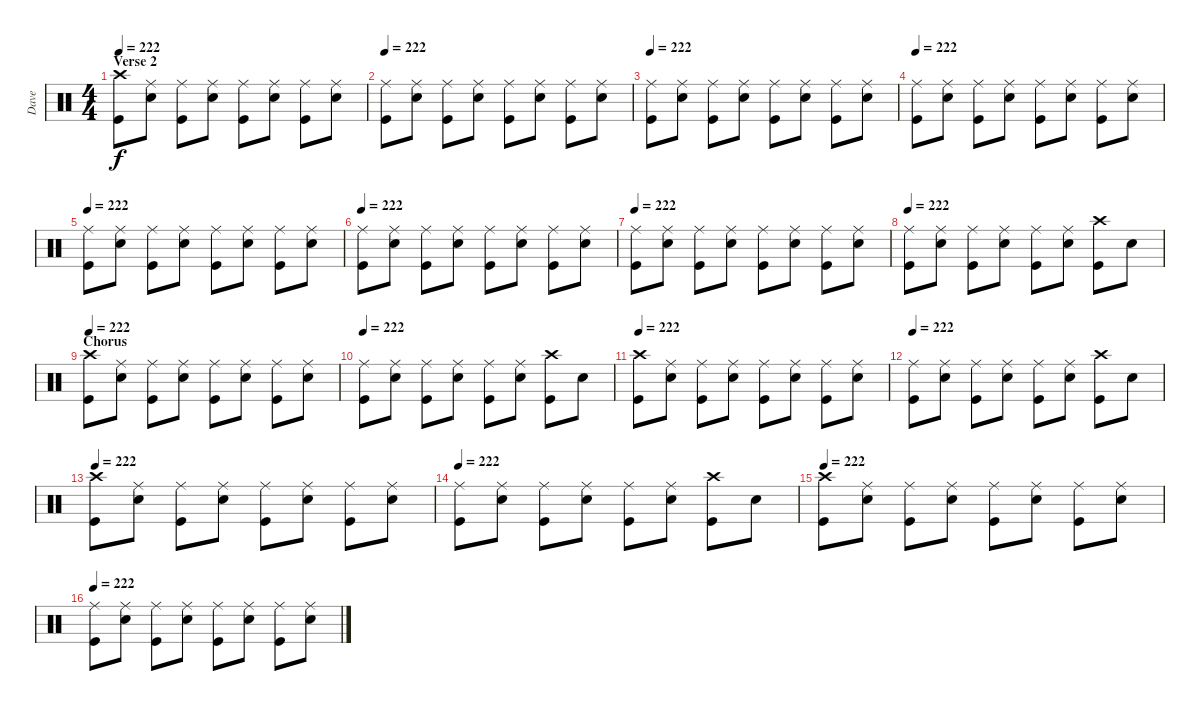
\track ("Dave" "Dave") {instrument percussion}
\staff {score}
\articulation defaults
\ts (4 4)
\section ("" "Verse 2")
\tempo 222
\clef neutral
\ks c
("Crash high (hit)" "Kick (hit)").8{dy f} ("Ride (middle)" "Snare (hit) 2").8 ("Ride (middle)" "Kick (hit)").8 ("Ride (middle)" "Snare (hit) 2").8 ("Ride (middle)" "Kick (hit)").8 ("Ride (middle)" "Snare (hit) 2").8 ("Ride (middle)" "Kick (hit)").8 ("Ride (middle)" "Snare (hit) 2").8 |
\tempo 222
("Ride (middle)" "Kick (hit)").8 ("Ride (middle)" "Snare (hit) 2").8 ("Ride (middle)" "Kick (hit)").8 ("Ride (middle)" "Snare (hit) 2").8 ("Ride (middle)" "Kick (hit)").8 ("Ride (middle)" "Snare (hit) 2").8 ("Ride (middle)" "Kick (hit)").8 ("Ride (middle)" "Snare (hit) 2").8 |
\tempo 222
("Ride (middle)" "Kick (hit)").8 ("Ride (middle)" "Snare (hit) 2").8 ("Ride (middle)" "Kick (hit)").8 ("Ride (middle)" "Snare (hit) 2").8 ("Ride (middle)" "Kick (hit)").8 ("Ride (middle)" "Snare (hit) 2").8 ("Ride (middle)" "Kick (hit)").8 ("Ride (middle)" "Snare (hit) 2").8 |
\tempo 222
("Ride (middle)" "Kick (hit)").8 ("Ride (middle)" "Snare (hit) 2").8 ("Ride (middle)" "Kick (hit)").8 ("Ride (middle)" "Snare (hit) 2").8 ("Ride (middle)" "Kick (hit)").8 ("Ride (middle)" "Snare (hit) 2").8 ("Ride (middle)" "Kick (hit)").8 ("Ride (middle)" "Snare (hit) 2").8 |
\tempo 222
("Ride (middle)" "Kick (hit)").8 ("Ride (middle)" "Snare (hit) 2").8 ("Ride (middle)" "Kick (hit)").8 ("Ride (middle)" "Snare (hit) 2").8 ("Ride (middle)" "Kick (hit)").8 ("Ride (middle)" "Snare (hit) 2").8 ("Ride (middle)" "Kick (hit)").8 ("Ride (middle)" "Snare (hit) 2").8 |
\tempo 222
("Ride (middle)" "Kick (hit)").8 ("Ride (middle)" "Snare (hit) 2").8 ("Ride (middle)" "Kick (hit)").8 ("Ride (middle)" "Snare (hit) 2").8 ("Ride (middle)" "Kick (hit)").8 ("Ride (middle)" "Snare (hit) 2").8 ("Ride (middle)" "Kick (hit)").8 ("Ride (middle)" "Snare (hit) 2").8 |
\tempo 222
("Ride (middle)" "Kick (hit)").8 ("Ride (middle)" "Snare (hit) 2").8 ("Ride (middle)" "Kick (hit)").8 ("Ride (middle)" "Snare (hit) 2").8 ("Ride (middle)" "Kick (hit)").8 ("Ride (middle)" "Snare (hit) 2").8 ("Ride (middle)" "Kick (hit)").8 ("Ride (middle)" "Snare (hit) 2").8 |
\tempo 222
("Ride (middle)" "Kick (hit)").8 ("Ride (middle)" "Snare (hit) 2").8 ("Ride (middle)" "Kick (hit)").8 ("Ride (middle)" "Snare (hit) 2").8 ("Ride (middle)" "Kick (hit)").8 ("Ride (middle)" "Snare (hit) 2").8 ("Crash high (hit)" "Kick (hit)").8 "Snare (hit) 2".8 |
\section ("" "Chorus")
\tempo 222
("Crash high (hit)" "Kick (hit)").8 ("Ride (middle)" "Snare (hit) 2").8 ("Ride (middle)" "Kick (hit)").8 ("Ride (middle)" "Snare (hit) 2").8 ("Ride (middle)" "Kick (hit)").8 ("Ride (middle)" "Snare (hit) 2").8 ("Ride (middle)" "Kick (hit)").8 ("Ride (middle)" "Snare (hit) 2").8 |
\tempo 222
("Ride (middle)" "Kick (hit)").8 ("Ride (middle)" "Snare (hit) 2").8 ("Ride (middle)" "Kick (hit)").8 ("Ride (middle)" "Snare (hit) 2").8 ("Ride (middle)" "Kick (hit)").8 ("Ride (middle)" "Snare (hit) 2").8 ("Crash high (hit)" "Kick (hit)").8 "Snare (hit) 2".8 |
\tempo 222
("Crash high (hit)" "Kick (hit)").8 ("Ride (middle)" "Snare (hit) 2").8 ("Ride (middle)" "Kick (hit)").8 ("Ride (middle)" "Snare (hit) 2").8 ("Ride (middle)" "Kick (hit)").8 ("Ride (middle)" "Snare (hit) 2").8 ("Ride (middle)" "Kick (hit)").8 ("Ride (middle)" "Snare (hit) 2").8 |
\tempo 222
("Ride (middle)" "Kick (hit)").8 ("Ride (middle)" "Snare (hit) 2").8 ("Ride (middle)" "Kick (hit)").8 ("Ride (middle)" "Snare (hit) 2").8 ("Ride (middle)" "Kick (hit)").8 ("Ride (middle)" "Snare (hit) 2").8 ("Crash high (hit)" "Kick (hit)").8 "Snare (hit) 2".8 |
\tempo 222
("Crash high (hit)" "Kick (hit)").8 ("Ride (middle)" "Snare (hit) 2").8 ("Ride (middle)" "Kick (hit)").8 ("Ride (middle)" "Snare (hit) 2").8 ("Ride (middle)" "Kick (hit)").8 ("Ride (middle)" "Snare (hit) 2").8 ("Ride (middle)" "Kick (hit)").8 ("Ride (middle)" "Snare (hit) 2").8 |
\tempo 222
("Ride (middle)" "Kick (hit)").8 ("Ride (middle)" "Snare (hit) 2").8 ("Ride (middle)" "Kick (hit)").8 ("Ride (middle)" "Snare (hit) 2").8 ("Ride (middle)" "Kick (hit)").8 ("Ride (middle)" "Snare (hit) 2").8 ("Crash high (hit)" "Kick (hit)").8 "Snare (hit) 2".8 |
\tempo 222
("Crash high (hit)" "Kick (hit)").8 ("Ride (middle)" "Snare (hit) 2").8 ("Ride (middle)" "Kick (hit)").8 ("Ride (middle)" "Snare (hit) 2").8 ("Ride (middle)" "Kick (hit)").8 ("Ride (middle)" "Snare (hit) 2").8 ("Ride (middle)" "Kick (hit)").8 ("Ride (middle)" "Snare (hit) 2").8 |
\tempo 222
("Ride (middle)" "Kick (hit)").8 ("Ride (middle)" "Snare (hit) 2").8 ("Ride (middle)" "Kick (hit)").8 ("Ride (middle)" "Snare (hit) 2").8 ("Ride (middle)" "Kick (hit)").8 ("Ride (middle)" "Snare (hit) 2").8 ("Ride (middle)" "Kick (hit)").8 ("Ride (middle)" "Snare (hit) 2").8
